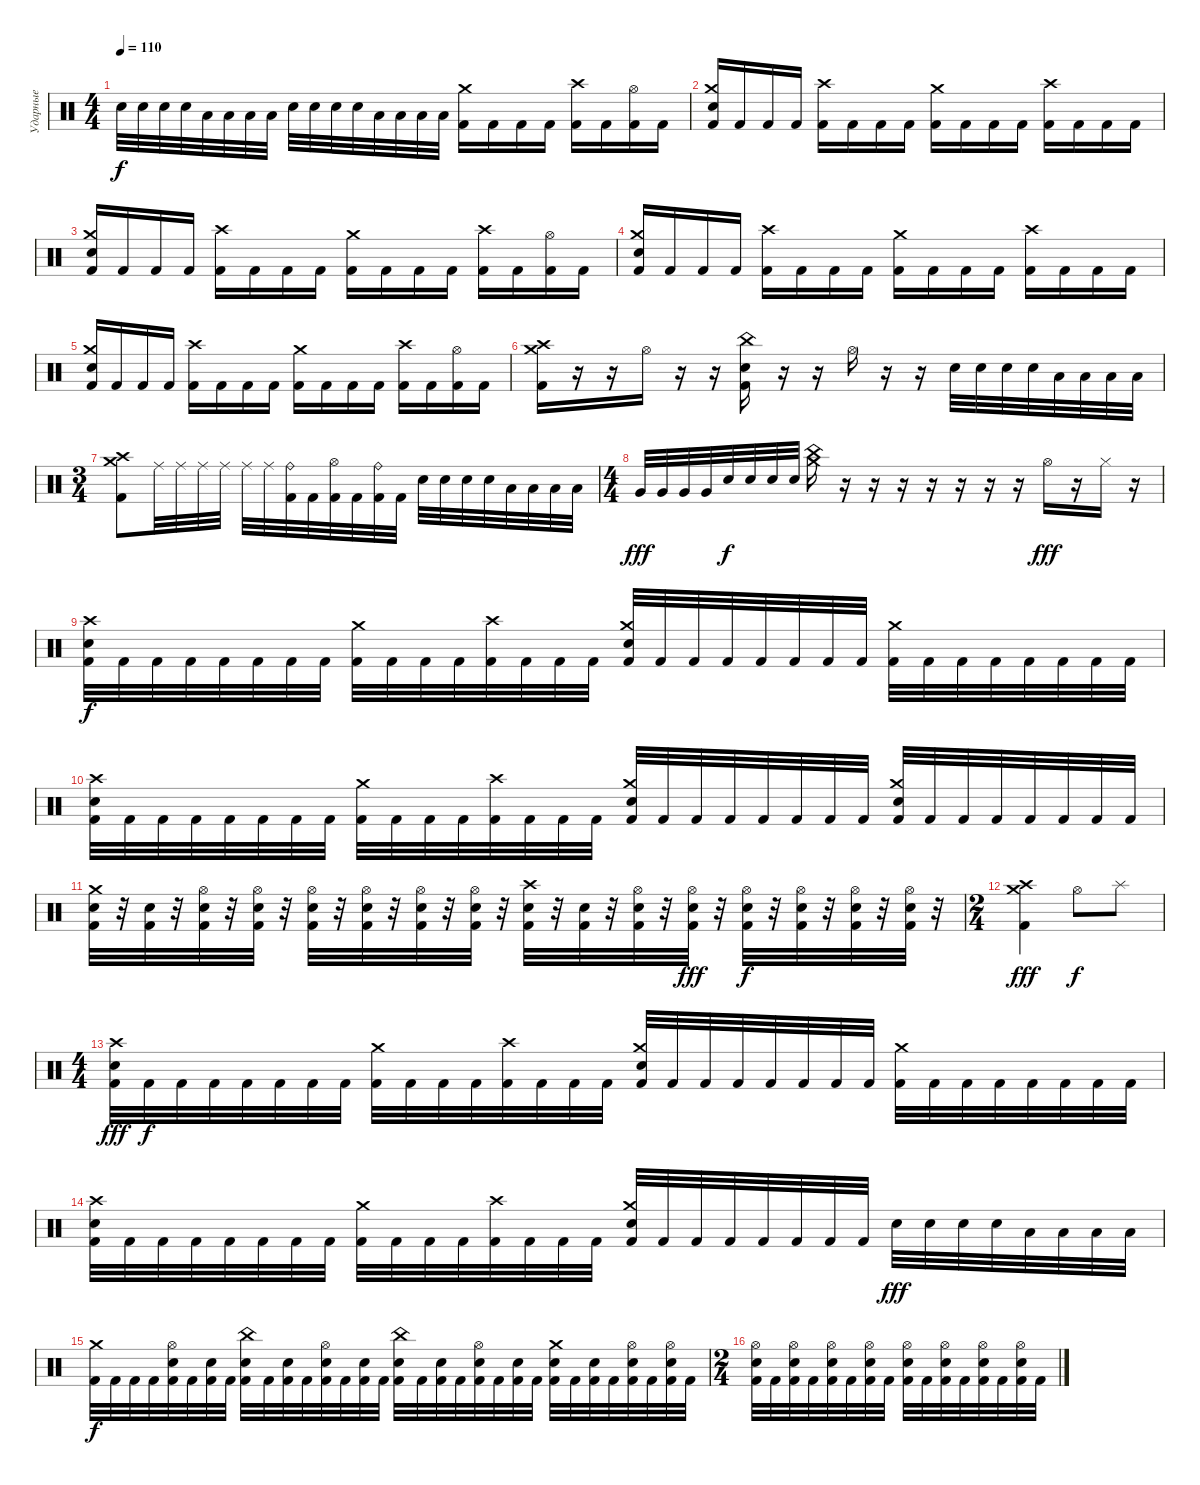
\track ("Ударные" "Ударные") {instrument percussion}
\staff {score}
\articulation defaults
\ts (4 4)
\tempo 110
\clef neutral
\ks c "Electric Snare (hit)".32{dy f} "Electric Snare (hit)".32 "Electric Snare (hit)".32 "Electric Snare (hit)".32 "Low Tom (hit)".32 "Low Tom (hit)".32 "Low Tom (hit)".32 "Low Tom (hit)".32 "Electric Snare (hit)".32 "Electric Snare (hit)".32 "Electric Snare (hit)".32 "Electric Snare (hit)".32 "Low Tom (hit)".32 "Low Tom (hit)".32 "Low Tom (hit)".32 "Low Tom (hit)".32
("Crash medium (hit)" "Kick (hit) 2").16 "Kick (hit) 2".16 "Kick (hit) 2".16 "Kick (hit) 2".16 ("Crash high (hit)" "Kick (hit) 2").16 "Kick (hit) 2".16 ("Hi-Hat (open)" "Kick (hit) 2").16 "Kick (hit) 2".16 |
("Crash medium (hit)" "Electric Snare (hit)" "Kick (hit) 2").16 "Kick (hit) 2".16 "Kick (hit) 2".16 "Kick (hit) 2".16 ("Crash high (hit)" "Kick (hit) 2").16 "Kick (hit) 2".16 "Kick (hit) 2".16 "Kick (hit) 2".16 ("Crash medium (hit)" "Kick (hit) 2").16 "Kick (hit) 2".16 "Kick (hit) 2".16 "Kick (hit) 2".16 ("Crash high (hit)" "Kick (hit) 2").16 "Kick (hit) 2".16 "Kick (hit) 2".16 "Kick (hit) 2".16 |
("Crash medium (hit)" "Electric Snare (hit)" "Kick (hit) 2").16 "Kick (hit) 2".16 "Kick (hit) 2".16 "Kick (hit) 2".16 ("Crash high (hit)" "Kick (hit) 2").16 "Kick (hit) 2".16 "Kick (hit) 2".16 "Kick (hit) 2".16 ("Crash medium (hit)" "Kick (hit) 2").16 "Kick (hit) 2".16 "Kick (hit) 2".16 "Kick (hit) 2".16 ("Crash high (hit)" "Kick (hit) 2").16 "Kick (hit) 2".16 ("Hi-Hat (open)" "Kick (hit) 2").16 "Kick (hit) 2".16 |
("Crash medium (hit)" "Electric Snare (hit)" "Kick (hit) 2").16 "Kick (hit) 2".16 "Kick (hit) 2".16 "Kick (hit) 2".16 ("Crash high (hit)" "Kick (hit) 2").16 "Kick (hit) 2".16 "Kick (hit) 2".16 "Kick (hit) 2".16 ("Crash medium (hit)" "Kick (hit) 2").16 "Kick (hit) 2".16 "Kick (hit) 2".16 "Kick (hit) 2".16 ("Crash high (hit)" "Kick (hit) 2").16 "Kick (hit) 2".16 "Kick (hit) 2".16 "Kick (hit) 2".16 |
("Crash medium (hit)" "Electric Snare (hit)" "Kick (hit) 2").16 "Kick (hit) 2".16 "Kick (hit) 2".16 "Kick (hit) 2".16 ("Crash high (hit)" "Kick (hit) 2").16 "Kick (hit) 2".16 "Kick (hit) 2".16 "Kick (hit) 2".16 ("Crash medium (hit)" "Kick (hit) 2").16 "Kick (hit) 2".16 "Kick (hit) 2".16 "Kick (hit) 2".16 ("Crash high (hit)" "Kick (hit) 2").16 "Kick (hit) 2".16 ("Hi-Hat (open)" "Kick (hit) 2").16 "Kick (hit) 2".16 |
("Crash high (hit)" "Crash medium (hit)" "Kick (hit) 2").16 r.16 r.16 "Hi-Hat (open)".16 r.16 r.16 ("China (hit)" "Electric Snare (hit)" "Kick (hit) 2").16 r.16 r.16 "Hi-Hat (open)".16 r.16 r.16 "Electric Snare (hit)".32 "Electric Snare (hit)".32 "Electric Snare (hit)".32 "Electric Snare (hit)".32 "Low Tom (hit)".32 "Low Tom (hit)".32 "Low Tom (hit)".32 "Low Tom (hit)".32 |
\ts (3 4)
("Crash medium (hit)" "Crash high (hit)" "Kick (hit) 2").8 "Ride (middle)".32 "Ride (middle)".32 "Ride (middle)".32 "Ride (middle)".32 "Ride (middle)".32 "Ride (middle)".32 ("Ride (bell)" "Kick (hit) 2").32 "Kick (hit) 2".32 ("Hi-Hat (open)" "Kick (hit) 2").32 "Kick (hit) 2".32 ("Ride (bell)" "Kick (hit) 2").32 "Kick (hit) 2".32 "Electric Snare (hit)".32 "Electric Snare (hit)".32 "Electric Snare (hit)".32 "Electric Snare (hit)".32 "Low Tom (hit)".32 "Low Tom (hit)".32 "Low Tom (hit)".32 "Low Tom (hit)".32 |
\ts (4 4)
"Very Low Tom (hit)".32{dy fff} "Very Low Tom (hit)".32 "Very Low Tom (hit)".32 "Very Low Tom (hit)".32 "Electric Snare (hit)".32{dy f} "Electric Snare (hit)".32 "Electric Snare (hit)".32 "Electric Snare (hit)".32 ("Crash medium (hit)" "China (hit)").16 r.16 r.16 r.16 r.16 r.16 r.16 r.16 "Hi-Hat (open)".16{dy fff} r.16 "Hi-Hat (closed)".16 r.16 |
("Crash high (hit)" "Electric Snare (hit)" "Kick (hit) 2").32{dy f} "Kick (hit) 2".32 "Kick (hit) 2".32 "Kick (hit) 2".32 "Kick (hit) 2".32 "Kick (hit) 2".32 "Kick (hit) 2".32 "Kick (hit) 2".32 ("Crash medium (hit)" "Kick (hit) 2").32 "Kick (hit) 2".32 "Kick (hit) 2".32 "Kick (hit) 2".32 ("Crash high (hit)" "Kick (hit) 2").32 "Kick (hit) 2".32 "Kick (hit) 2".32 "Kick (hit) 2".32 ("Crash medium (hit)" "Electric Snare (hit)" "Kick (hit) 2").32 "Kick (hit) 2".32 "Kick (hit) 2".32 "Kick (hit) 2".32 "Kick (hit) 2".32 "Kick (hit) 2".32 "Kick (hit) 2".32 "Kick (hit) 2".32 ("Crash medium (hit)" "Kick (hit) 2").32 "Kick (hit) 2".32 "Kick (hit) 2".32 "Kick (hit) 2".32 "Kick (hit) 2".32 "Kick (hit) 2".32 "Kick (hit) 2".32 "Kick (hit) 2".32 |
("Crash high (hit)" "Electric Snare (hit)" "Kick (hit) 2").32 "Kick (hit) 2".32 "Kick (hit) 2".32 "Kick (hit) 2".32 "Kick (hit) 2".32 "Kick (hit) 2".32 "Kick (hit) 2".32 "Kick (hit) 2".32 ("Crash medium (hit)" "Kick (hit) 2").32 "Kick (hit) 2".32 "Kick (hit) 2".32 "Kick (hit) 2".32 ("Crash high (hit)" "Kick (hit) 2").32 "Kick (hit) 2".32 "Kick (hit) 2".32 "Kick (hit) 2".32 ("Crash medium (hit)" "Electric Snare (hit)" "Kick (hit) 2").32 "Kick (hit) 2".32 "Kick (hit) 2".32 "Kick (hit) 2".32 "Kick (hit) 2".32 "Kick (hit) 2".32 "Kick (hit) 2".32 "Kick (hit) 2".32 ("Crash medium (hit)" "Electric Snare (hit)" "Kick (hit) 2").32 "Kick (hit) 2".32 "Kick (hit) 2".32 "Kick (hit) 2".32 "Kick (hit) 2".32 "Kick (hit) 2".32 "Kick (hit) 2".32 "Kick (hit) 2".32 |
("Crash medium (hit)" "Electric Snare (hit)" "Kick (hit) 2").32 r.32 ("Electric Snare (hit)" "Kick (hit) 2").32 r.32 ("Hi-Hat (open)" "Electric Snare (hit)" "Kick (hit) 2").32 r.32 ("Hi-Hat (open)" "Electric Snare (hit)" "Kick (hit) 2").32 r.32 ("Hi-Hat (open)" "Electric Snare (hit)" "Kick (hit) 2").32 r.32 ("Hi-Hat (open)" "Electric Snare (hit)" "Kick (hit) 2").32 r.32 ("Hi-Hat (open)" "Electric Snare (hit)" "Kick (hit) 2").32 r.32 ("Hi-Hat (open)" "Electric Snare (hit)" "Kick (hit) 2").32 r.32 ("Crash high (hit)" "Electric Snare (hit)" "Kick (hit) 2").32 r.32 ("Electric Snare (hit)" "Kick (hit) 2").32 r.32 ("Hi-Hat (open)" "Electric Snare (hit)" "Kick (hit) 2").32 r.32 ("Hi-Hat (open)" "Electric Snare (hit)" "Kick (hit) 2").32{dy fff} r.32 ("Hi-Hat (open)" "Electric Snare (hit)" "Kick (hit) 2").32{dy f} r.32 ("Hi-Hat (open)" "Electric Snare (hit)" "Kick (hit) 2").32 r.32 ("Hi-Hat (open)" "Electric Snare (hit)" "Kick (hit) 2").32 r.32 ("Hi-Hat (open)" "Electric Snare (hit)" "Kick (hit) 2").32 r.32 |
\ts (2 4)
("Crash medium (hit)" "Crash high (hit)" "Kick (hit) 2").4{dy fff} "Hi-Hat (open)".8{dy f} "Splash (hit)".8 |
\ts (4 4)
("Crash high (hit)" "Electric Snare (hit)" "Kick (hit) 2").32{dy fff} "Kick (hit) 2".32{dy f} "Kick (hit) 2".32 "Kick (hit) 2".32 "Kick (hit) 2".32 "Kick (hit) 2".32 "Kick (hit) 2".32 "Kick (hit) 2".32 ("Crash medium (hit)" "Kick (hit) 2").32 "Kick (hit) 2".32 "Kick (hit) 2".32 "Kick (hit) 2".32 ("Crash high (hit)" "Kick (hit) 2").32 "Kick (hit) 2".32 "Kick (hit) 2".32 "Kick (hit) 2".32 ("Crash medium (hit)" "Electric Snare (hit)" "Kick (hit) 2").32 "Kick (hit) 2".32 "Kick (hit) 2".32 "Kick (hit) 2".32 "Kick (hit) 2".32 "Kick (hit) 2".32 "Kick (hit) 2".32 "Kick (hit) 2".32 ("Crash medium (hit)" "Kick (hit) 2").32 "Kick (hit) 2".32 "Kick (hit) 2".32 "Kick (hit) 2".32 "Kick (hit) 2".32 "Kick (hit) 2".32 "Kick (hit) 2".32 "Kick (hit) 2".32 |
("Crash high (hit)" "Electric Snare (hit)" "Kick (hit) 2").32 "Kick (hit) 2".32 "Kick (hit) 2".32 "Kick (hit) 2".32 "Kick (hit) 2".32 "Kick (hit) 2".32 "Kick (hit) 2".32 "Kick (hit) 2".32 ("Crash medium (hit)" "Kick (hit) 2").32 "Kick (hit) 2".32 "Kick (hit) 2".32 "Kick (hit) 2".32 ("Crash high (hit)" "Kick (hit) 2").32 "Kick (hit) 2".32 "Kick (hit) 2".32 "Kick (hit) 2".32 ("Crash medium (hit)" "Electric Snare (hit)" "Kick (hit) 2").32 "Kick (hit) 2".32 "Kick (hit) 2".32 "Kick (hit) 2".32 "Kick (hit) 2".32 "Kick (hit) 2".32 "Kick (hit) 2".32 "Kick (hit) 2".32 "Electric Snare (hit)".32{dy fff} "Electric Snare (hit)".32 "Electric Snare (hit)".32 "Electric Snare (hit)".32 "Low Tom (hit)".32 "Low Tom (hit)".32 "Low Tom (hit)".32 "Low Tom (hit)".32 |
("Crash medium (hit)" "Kick (hit) 2").32{dy f} "Kick (hit) 2".32 "Kick (hit) 2".32 "Kick (hit) 2".32 ("Hi-Hat (open)" "Electric Snare (hit)" "Kick (hit) 2").32 "Kick (hit) 2".32 ("Electric Snare (hit)" "Kick (hit) 2").32 "Kick (hit) 2".32 ("China (hit)" "Electric Snare (hit)" "Kick (hit) 2").32 "Kick (hit) 2".32 ("Electric Snare (hit)" "Kick (hit) 2").32 "Kick (hit) 2".32 ("Hi-Hat (open)" "Electric Snare (hit)" "Kick (hit) 2").32 "Kick (hit) 2".32 ("Electric Snare (hit)" "Kick (hit) 2").32 "Kick (hit) 2".32 ("China (hit)" "Electric Snare (hit)" "Kick (hit) 2").32 "Kick (hit) 2".32 ("Electric Snare (hit)" "Kick (hit) 2").32 "Kick (hit) 2".32 ("Hi-Hat (open)" "Electric Snare (hit)" "Kick (hit) 2").32 "Kick (hit) 2".32 ("Electric Snare (hit)" "Kick (hit) 2").32 "Kick (hit) 2".32 ("Crash medium (hit)" "Electric Snare (hit)" "Kick (hit) 2").32 "Kick (hit) 2".32 ("Electric Snare (hit)" "Kick (hit) 2").32 "Kick (hit) 2".32 ("Hi-Hat (open)" "Electric Snare (hit)" "Kick (hit) 2").32 "Kick (hit) 2".32 ("Hi-Hat (open)" "Electric Snare (hit)" "Kick (hit) 2").32 "Kick (hit) 2".32 |
\ts (2 4)
("Hi-Hat (open)" "Electric Snare (hit)" "Kick (hit) 2").32 "Kick (hit) 2".32 ("Hi-Hat (open)" "Electric Snare (hit)" "Kick (hit) 2").32 "Kick (hit) 2".32 ("Hi-Hat (open)" "Electric Snare (hit)" "Kick (hit) 2").32 "Kick (hit) 2".32 ("Hi-Hat (open)" "Electric Snare (hit)" "Kick (hit) 2").32 "Kick (hit) 2".32 ("Hi-Hat (open)" "Electric Snare (hit)" "Kick (hit) 2").32 "Kick (hit) 2".32 ("Hi-Hat (open)" "Electric Snare (hit)" "Kick (hit) 2").32 "Kick (hit) 2".32 ("Hi-Hat (open)" "Electric Snare (hit)" "Kick (hit) 2").32 "Kick (hit) 2".32 ("Hi-Hat (open)" "Electric Snare (hit)" "Kick (hit) 2").32 "Kick (hit) 2".32
